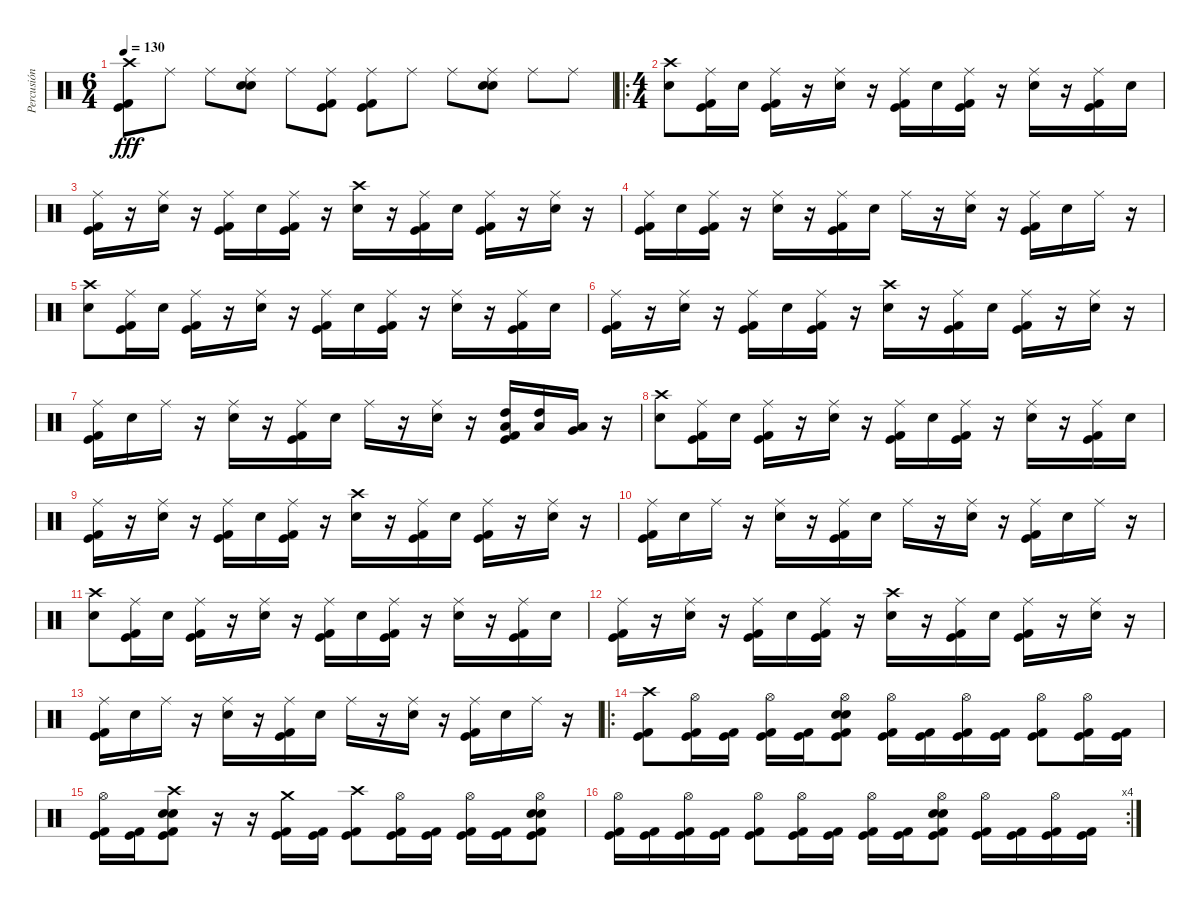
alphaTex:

\track ("Percusión" "Percusión") {instrument percussion}
\staff {score}
\articulation defaults
\ts (6 4)
\tempo 130
\clef neutral
\ks c
("Crash high (hit)" "Kick (hit)" "Kick (hit) 2").8{dy fff} "Ride (middle)".8 "Ride (middle)".8 ("Ride (middle)" "Electric Snare (hit)" "Snare (hit) 2").8 "Ride (middle)".8 ("Ride (middle)" "Kick (hit)" "Kick (hit) 2").8 ("Ride (middle)" "Kick (hit)" "Kick (hit) 2").8 "Ride (middle)".8 "Ride (middle)".8 ("Ride (middle)" "Electric Snare (hit)" "Snare (hit) 2").8 "Ride (middle)".8 "Ride (middle)".8 |
\ro
\ts (4 4)
("Crash high (hit)" "Snare (hit) 2").8 ("Ride (middle)" "Kick (hit)" "Kick (hit) 2").16 "Snare (hit) 2".16 ("Ride (middle)" "Kick (hit)" "Kick (hit) 2").16 r.16 ("Ride (middle)" "Snare (hit) 2").16 r.16 ("Ride (middle)" "Kick (hit)" "Kick (hit) 2").16 "Snare (hit) 2".16 ("Ride (middle)" "Kick (hit) 2" "Kick (hit)").16 r.16 ("Ride (middle)" "Snare (hit) 2").16 r.16 ("Ride (middle)" "Kick (hit)" "Kick (hit) 2").16 "Snare (hit) 2".16 |
("Ride (middle)" "Kick (hit) 2" "Kick (hit)").16 r.16 ("Ride (middle)" "Snare (hit) 2").16 r.16 ("Ride (middle)" "Kick (hit) 2" "Kick (hit)").16 "Snare (hit) 2".16 ("Ride (middle)" "Kick (hit)" "Kick (hit) 2").16 r.16 ("Crash high (hit)" "Snare (hit) 2").16 r.16 ("Ride (middle)" "Kick (hit)" "Kick (hit) 2").16 "Snare (hit) 2".16 ("Ride (middle)" "Kick (hit) 2" "Kick (hit)").16 r.16 ("Ride (middle)" "Snare (hit) 2").16 r.16 |
("Ride (middle)" "Kick (hit) 2" "Kick (hit)").16 "Snare (hit) 2".16 ("Ride (middle)" "Kick (hit) 2" "Kick (hit)").16 r.16 ("Ride (middle)" "Snare (hit) 2").16 r.16 ("Ride (middle)" "Kick (hit)" "Kick (hit) 2").16 "Snare (hit) 2".16 "Ride (middle)".16 r.16 ("Ride (middle)" "Snare (hit) 2").16 r.16 ("Ride (middle)" "Kick (hit)" "Kick (hit) 2").16 "Snare (hit) 2".16 "Ride (middle)".16 r.16 |
("Crash high (hit)" "Snare (hit) 2").8 ("Ride (middle)" "Kick (hit)" "Kick (hit) 2").16 "Snare (hit) 2".16 ("Ride (middle)" "Kick (hit)" "Kick (hit) 2").16 r.16 ("Ride (middle)" "Snare (hit) 2").16 r.16 ("Ride (middle)" "Kick (hit)" "Kick (hit) 2").16 "Snare (hit) 2".16 ("Ride (middle)" "Kick (hit) 2" "Kick (hit)").16 r.16 ("Ride (middle)" "Snare (hit) 2").16 r.16 ("Ride (middle)" "Kick (hit)" "Kick (hit) 2").16 "Snare (hit) 2".16 |
("Ride (middle)" "Kick (hit) 2" "Kick (hit)").16 r.16 ("Ride (middle)" "Snare (hit) 2").16 r.16 ("Ride (middle)" "Kick (hit) 2" "Kick (hit)").16 "Snare (hit) 2".16 ("Ride (middle)" "Kick (hit)" "Kick (hit) 2").16 r.16 ("Crash high (hit)" "Snare (hit) 2").16 r.16 ("Ride (middle)" "Kick (hit)" "Kick (hit) 2").16 "Snare (hit) 2".16 ("Ride (middle)" "Kick (hit) 2" "Kick (hit)").16 r.16 ("Ride (middle)" "Snare (hit) 2").16 r.16 |
("Ride (middle)" "Kick (hit) 2" "Kick (hit)").16 "Snare (hit) 2".16 "Ride (middle)".16 r.16 ("Ride (middle)" "Snare (hit) 2").16 r.16 ("Ride (middle)" "Kick (hit)" "Kick (hit) 2").16 "Snare (hit) 2".16 "Ride (middle)".16 r.16 ("Ride (middle)" "Snare (hit) 2").16 r.16 ("High Tom (hit)" "Low Tom (hit)" "Kick (hit)" "Kick (hit) 2").16 ("High Tom (hit)" "Low Tom (hit)").16 ("Low Tom (hit)" "Very Low Tom (hit)").16 r.16 |
("Crash high (hit)" "Snare (hit) 2").8 ("Ride (middle)" "Kick (hit)" "Kick (hit) 2").16 "Snare (hit) 2".16 ("Ride (middle)" "Kick (hit)" "Kick (hit) 2").16 r.16 ("Ride (middle)" "Snare (hit) 2").16 r.16 ("Ride (middle)" "Kick (hit)" "Kick (hit) 2").16 "Snare (hit) 2".16 ("Ride (middle)" "Kick (hit) 2" "Kick (hit)").16 r.16 ("Ride (middle)" "Snare (hit) 2").16 r.16 ("Ride (middle)" "Kick (hit)" "Kick (hit) 2").16 "Snare (hit) 2".16 |
("Ride (middle)" "Kick (hit) 2" "Kick (hit)").16 r.16 ("Ride (middle)" "Snare (hit) 2").16 r.16 ("Ride (middle)" "Kick (hit) 2" "Kick (hit)").16 "Snare (hit) 2".16 ("Ride (middle)" "Kick (hit)" "Kick (hit) 2").16 r.16 ("Crash high (hit)" "Snare (hit) 2").16 r.16 ("Ride (middle)" "Kick (hit)" "Kick (hit) 2").16 "Snare (hit) 2".16 ("Ride (middle)" "Kick (hit) 2" "Kick (hit)").16 r.16 ("Ride (middle)" "Snare (hit) 2").16 r.16 |
("Ride (middle)" "Kick (hit) 2" "Kick (hit)").16 "Snare (hit) 2".16 "Ride (middle)".16 r.16 ("Ride (middle)" "Snare (hit) 2").16 r.16 ("Ride (middle)" "Kick (hit)" "Kick (hit) 2").16 "Snare (hit) 2".16 "Ride (middle)".16 r.16 ("Ride (middle)" "Snare (hit) 2").16 r.16 ("Ride (middle)" "Kick (hit)" "Kick (hit) 2").16 "Snare (hit) 2".16 "Ride (middle)".16 r.16 |
("Crash high (hit)" "Snare (hit) 2").8 ("Ride (middle)" "Kick (hit)" "Kick (hit) 2").16 "Snare (hit) 2".16 ("Ride (middle)" "Kick (hit)" "Kick (hit) 2").16 r.16 ("Ride (middle)" "Snare (hit) 2").16 r.16 ("Ride (middle)" "Kick (hit)" "Kick (hit) 2").16 "Snare (hit) 2".16 ("Ride (middle)" "Kick (hit) 2" "Kick (hit)").16 r.16 ("Ride (middle)" "Snare (hit) 2").16 r.16 ("Ride (middle)" "Kick (hit)" "Kick (hit) 2").16 "Snare (hit) 2".16 |
("Ride (middle)" "Kick (hit) 2" "Kick (hit)").16 r.16 ("Ride (middle)" "Snare (hit) 2").16 r.16 ("Ride (middle)" "Kick (hit) 2" "Kick (hit)").16 "Snare (hit) 2".16 ("Ride (middle)" "Kick (hit)" "Kick (hit) 2").16 r.16 ("Crash high (hit)" "Snare (hit) 2").16 r.16 ("Ride (middle)" "Kick (hit)" "Kick (hit) 2").16 "Snare (hit) 2".16 ("Ride (middle)" "Kick (hit) 2" "Kick (hit)").16 r.16 ("Ride (middle)" "Snare (hit) 2").16 r.16 |
("Ride (middle)" "Kick (hit) 2" "Kick (hit)").16 "Snare (hit) 2".16 "Ride (middle)".16 r.16 ("Ride (middle)" "Snare (hit) 2").16 r.16 ("Ride (middle)" "Kick (hit)" "Kick (hit) 2").16 "Snare (hit) 2".16 "Ride (middle)".16 r.16 ("Ride (middle)" "Snare (hit) 2").16 r.16 ("Ride (middle)" "Kick (hit)" "Kick (hit) 2").16 "Snare (hit) 2".16 "Ride (middle)".16 r.16 |
\ro
("Crash high (hit)" "Kick (hit) 2" "Kick (hit)").8 ("Hi-Hat (open)" "Kick (hit) 2" "Kick (hit)").16 ("Kick (hit) 2" "Kick (hit)").16 ("Hi-Hat (open)" "Kick (hit) 2" "Kick (hit)").16 ("Kick (hit) 2" "Kick (hit)").16 ("Hi-Hat (open)" "Snare (hit) 2" "Electric Snare (hit)" "Kick (hit) 2" "Kick (hit)").8 ("Hi-Hat (open)" "Kick (hit) 2" "Kick (hit)").16 ("Kick (hit) 2" "Kick (hit)").16 ("Hi-Hat (open)" "Kick (hit) 2" "Kick (hit)").16 ("Kick (hit) 2" "Kick (hit)").16 ("Hi-Hat (open)" "Kick (hit) 2" "Kick (hit)").8 ("Hi-Hat (open)" "Kick (hit) 2" "Kick (hit)").16 ("Kick (hit) 2" "Kick (hit)").16 |
("Hi-Hat (open)" "Kick (hit) 2" "Kick (hit)").16 ("Kick (hit) 2" "Kick (hit)").16 ("Crash high (hit)" "Snare (hit) 2" "Electric Snare (hit)" "Kick (hit) 2" "Kick (hit)").8 r.16 r.16 ("Crash medium (hit)" "Kick (hit) 2" "Kick (hit)").16 ("Kick (hit) 2" "Kick (hit)").16 ("Crash high (hit)" "Kick (hit) 2" "Kick (hit)").8 ("Hi-Hat (open)" "Kick (hit) 2" "Kick (hit)").16 ("Kick (hit) 2" "Kick (hit)").16 ("Hi-Hat (open)" "Kick (hit) 2" "Kick (hit)").16 ("Kick (hit) 2" "Kick (hit)").16 ("Hi-Hat (open)" "Snare (hit) 2" "Electric Snare (hit)" "Kick (hit) 2" "Kick (hit)").8 |
\rc 4
("Hi-Hat (open)" "Kick (hit) 2" "Kick (hit)").16 ("Kick (hit) 2" "Kick (hit)").16 ("Hi-Hat (open)" "Kick (hit) 2" "Kick (hit)").16 ("Kick (hit) 2" "Kick (hit)").16 ("Hi-Hat (open)" "Kick (hit) 2" "Kick (hit)").8 ("Hi-Hat (open)" "Kick (hit) 2" "Kick (hit)").16 ("Kick (hit) 2" "Kick (hit)").16 ("Hi-Hat (open)" "Kick (hit) 2" "Kick (hit)").16 ("Kick (hit) 2" "Kick (hit)").16 ("Hi-Hat (open)" "Electric Snare (hit)" "Snare (hit) 2" "Kick (hit) 2" "Kick (hit)").8 ("Hi-Hat (open)" "Kick (hit) 2" "Kick (hit)").16 ("Kick (hit) 2" "Kick (hit)").16 ("Hi-Hat (open)" "Kick (hit) 2" "Kick (hit)").16 ("Kick (hit) 2" "Kick (hit)").16
